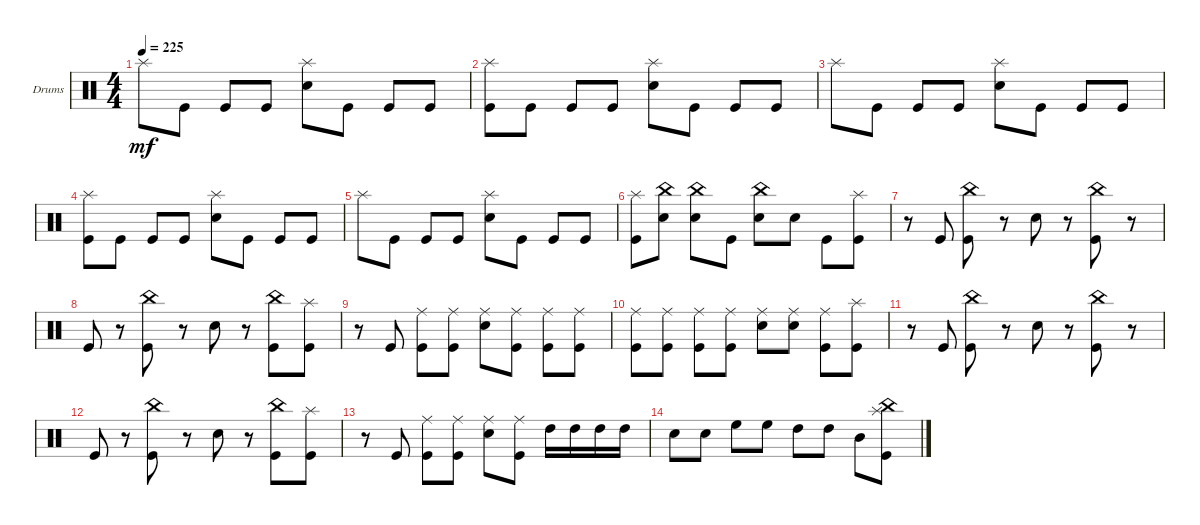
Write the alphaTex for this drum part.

\bracketExtendMode groupsimilarinstruments
\firstSystemTrackNameOrientation horizontal
\otherSystemsTrackNameOrientation horizontal
\track ("Drumkit" "Drums") {instrument percussion}
\staff {score}
\articulation defaults
\ts (4 4)
\tempo 225
\clef neutral
\ks c "Splash (hit)".8{dy mf} "Kick (hit)".8 "Kick (hit)".8 "Kick (hit)".8
("Snare (hit) 2" "Splash (hit)").8 "Kick (hit)".8 "Kick (hit)".8 "Kick (hit)".8 |
("Kick (hit)" "Splash (hit)").8 "Kick (hit)".8 "Kick (hit)".8 "Kick (hit)".8 ("Snare (hit) 2" "Splash (hit)").8 "Kick (hit)".8 "Kick (hit)".8 "Kick (hit)".8 |
"Splash (hit)".8 "Kick (hit)".8 "Kick (hit)".8 "Kick (hit)".8 ("Snare (hit) 2" "Splash (hit)").8 "Kick (hit)".8 "Kick (hit)".8 "Kick (hit)".8 |
("Kick (hit)" "Splash (hit)").8 "Kick (hit)".8 "Kick (hit)".8 "Kick (hit)".8 ("Snare (hit) 2" "Splash (hit)").8 "Kick (hit)".8 "Kick (hit)".8 "Kick (hit)".8 |
"Splash (hit)".8 "Kick (hit)".8 "Kick (hit)".8 "Kick (hit)".8 ("Snare (hit) 2" "Splash (hit)").8 "Kick (hit)".8 "Kick (hit)".8 "Kick (hit)".8 |
("Kick (hit)" "Splash (hit)").8 ("Snare (hit) 2" "China (hit)").8 ("Snare (hit) 2" "China (hit)").8 "Kick (hit)".8 ("Snare (hit) 2" "China (hit)").8 "Snare (hit) 2".8 "Kick (hit)".8 ("Kick (hit)" "Splash (hit)").8 |
r.8 "Kick (hit)".8 ("Kick (hit)" "China (hit)").8 r.8 "Snare (hit) 2".8 r.8 ("Kick (hit)" "China (hit)").8 r.8 |
"Kick (hit)".8 r.8 ("Kick (hit)" "China (hit)").8 r.8 "Snare (hit) 2".8 r.8 ("Kick (hit)" "China (hit)").8 ("Kick (hit)" "Splash (hit)").8 |
r.8 "Kick (hit)".8 ("Kick (hit)" "Ride (middle)").8 ("Kick (hit)" "Ride (middle)").8 ("Snare (hit) 2" "Ride (middle)").8 ("Kick (hit)" "Ride (middle)").8 ("Kick (hit)" "Ride (middle)").8 ("Kick (hit)" "Ride (middle)").8 |
("Kick (hit)" "Ride (middle)").8 ("Kick (hit)" "Ride (middle)").8 ("Kick (hit)" "Ride (middle)").8 ("Kick (hit)" "Ride (middle)").8 ("Snare (hit) 2" "Ride (middle)").8 ("Snare (hit) 2" "Ride (middle)").8 ("Kick (hit)" "Ride (middle)").8 ("Kick (hit)" "Splash (hit)").8 |
r.8 "Kick (hit)".8 ("Kick (hit)" "China (hit)").8 r.8 "Snare (hit) 2".8 r.8 ("Kick (hit)" "China (hit)").8 r.8 |
"Kick (hit)".8 r.8 ("Kick (hit)" "China (hit)").8 r.8 "Snare (hit) 2".8 r.8 ("Kick (hit)" "China (hit)").8 ("Kick (hit)" "Splash (hit)").8 |
r.8 "Kick (hit)".8 ("Kick (hit)" "Ride (middle)").8 ("Kick (hit)" "Ride (middle)").8 ("Snare (hit) 2" "Ride (middle)").8 ("Kick (hit)" "Ride (middle)").8 "High Tom (hit)".16 "High Tom (hit)".16 "High Tom (hit)".16 "High Tom (hit)".16 |
"Snare (hit) 2".8 "Snare (hit) 2".8 "High Floor Tom (hit)".8 "High Floor Tom (hit)".8 "High Tom (hit)".8 "High Tom (hit)".8 "Mid Tom (hit)".8 ("Kick (hit)" "China (hit)" "Splash (hit)").8
